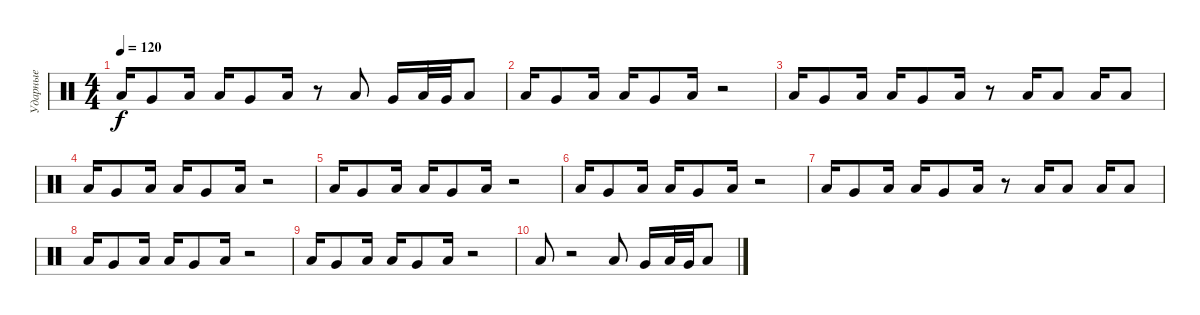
\track ("Ударные" "Ударные") {instrument percussion}
\staff {score}
\articulation defaults
\ts (4 4)
\tempo 120
\clef neutral
\ks c "Low Floor Tom (hit)".16{dy f} "Very Low Tom (hit)".8 "Low Tom (hit)".16 "Low Floor Tom (hit)".16 "Very Low Tom (hit)".8 "Low Tom (hit)".16
r.8 "Low Tom (hit)".8 "Very Low Tom (hit)".16 "Low Tom (hit)".32 "Very Low Tom (hit)".32 "Low Tom (hit)".8 |
"Low Floor Tom (hit)".16 "Very Low Tom (hit)".8 "Low Tom (hit)".16 "Low Floor Tom (hit)".16 "Very Low Tom (hit)".8 "Low Tom (hit)".16 r.2 |
"Low Floor Tom (hit)".16 "Very Low Tom (hit)".8 "Low Tom (hit)".16 "Low Floor Tom (hit)".16 "Very Low Tom (hit)".8 "Low Tom (hit)".16 r.8 "Low Tom (hit)".16 "Low Tom (hit)".8 "Low Tom (hit)".16 "Low Tom (hit)".8 |
"Low Floor Tom (hit)".16 "Very Low Tom (hit)".8 "Low Tom (hit)".16 "Low Floor Tom (hit)".16 "Very Low Tom (hit)".8 "Low Tom (hit)".16 r.2 |
"Low Floor Tom (hit)".16 "Very Low Tom (hit)".8 "Low Tom (hit)".16 "Low Floor Tom (hit)".16 "Very Low Tom (hit)".8 "Low Tom (hit)".16 r.2 |
"Low Floor Tom (hit)".16 "Very Low Tom (hit)".8 "Low Tom (hit)".16 "Low Floor Tom (hit)".16 "Very Low Tom (hit)".8 "Low Tom (hit)".16 r.2 |
"Low Floor Tom (hit)".16 "Very Low Tom (hit)".8 "Low Tom (hit)".16 "Low Floor Tom (hit)".16 "Very Low Tom (hit)".8 "Low Tom (hit)".16 r.8 "Low Tom (hit)".16 "Low Tom (hit)".8 "Low Tom (hit)".16 "Low Tom (hit)".8 |
"Low Floor Tom (hit)".16 "Very Low Tom (hit)".8 "Low Tom (hit)".16 "Low Floor Tom (hit)".16 "Very Low Tom (hit)".8 "Low Tom (hit)".16 r.2 |
"Low Floor Tom (hit)".16 "Very Low Tom (hit)".8 "Low Tom (hit)".16 "Low Floor Tom (hit)".16 "Very Low Tom (hit)".8 "Low Tom (hit)".16 r.2 |
"Low Floor Tom (hit)".8 r.2 "Low Tom (hit)".8 "Very Low Tom (hit)".16 "Low Tom (hit)".32 "Very Low Tom (hit)".32 "Low Floor Tom (hit)".8
